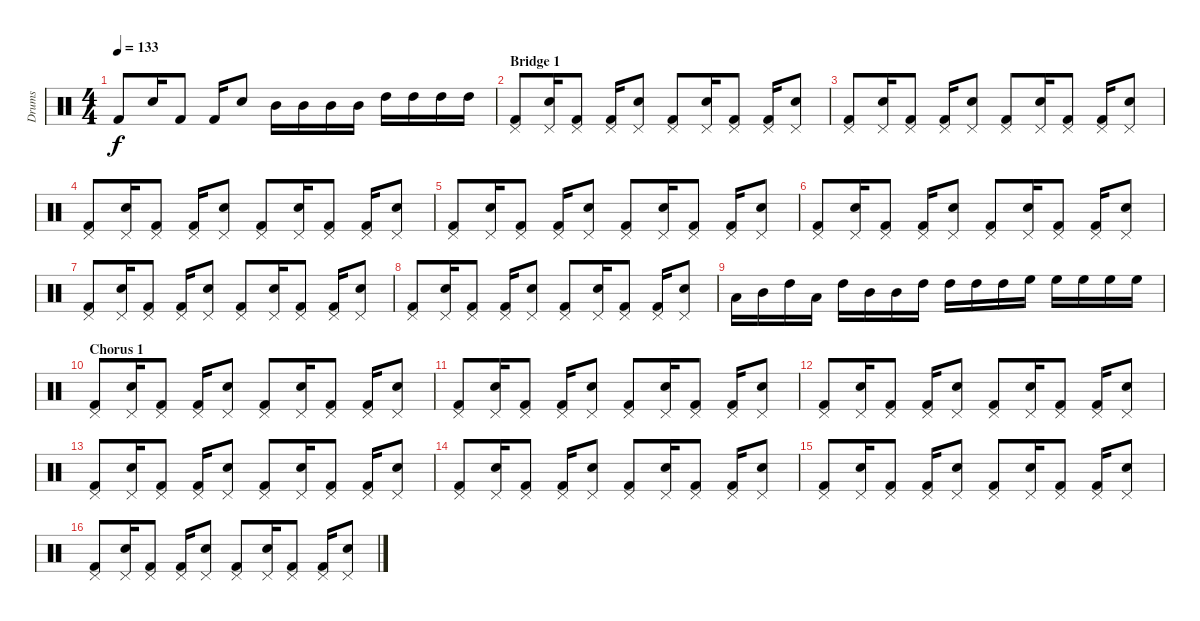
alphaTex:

\track ("Drums" "Drums") {instrument percussion}
\staff {score}
\articulation defaults
\ts (4 4)
\tempo 133
\clef neutral
\ks c "Kick (hit) 2".8{dy f} "Electric Snare (hit)".16 "Kick (hit) 2".8 "Kick (hit) 2".16 "Electric Snare (hit)".8 "Mid Tom (hit)".16 "Mid Tom (hit)".16 "Mid Tom (hit)".16 "Mid Tom (hit)".16 "High Tom (hit)".16 "High Tom (hit)".16 "High Tom (hit)".16 "High Tom (hit)".16
|
\section ("" "Bridge 1")
("Pedal Hi-Hat (hit)" "Kick (hit) 2").8 ("Pedal Hi-Hat (hit)" "Electric Snare (hit)").16 ("Pedal Hi-Hat (hit)" "Kick (hit) 2").8 ("Pedal Hi-Hat (hit)" "Kick (hit) 2").16 ("Pedal Hi-Hat (hit)" "Electric Snare (hit)").8 ("Pedal Hi-Hat (hit)" "Kick (hit) 2").8 ("Pedal Hi-Hat (hit)" "Electric Snare (hit)").16 ("Pedal Hi-Hat (hit)" "Kick (hit) 2").8 ("Pedal Hi-Hat (hit)" "Kick (hit) 2").16 ("Pedal Hi-Hat (hit)" "Electric Snare (hit)").8 |
("Pedal Hi-Hat (hit)" "Kick (hit) 2").8 ("Pedal Hi-Hat (hit)" "Electric Snare (hit)").16 ("Pedal Hi-Hat (hit)" "Kick (hit) 2").8 ("Pedal Hi-Hat (hit)" "Kick (hit) 2").16 ("Pedal Hi-Hat (hit)" "Electric Snare (hit)").8 ("Pedal Hi-Hat (hit)" "Kick (hit) 2").8 ("Pedal Hi-Hat (hit)" "Electric Snare (hit)").16 ("Pedal Hi-Hat (hit)" "Kick (hit) 2").8 ("Pedal Hi-Hat (hit)" "Kick (hit) 2").16 ("Pedal Hi-Hat (hit)" "Electric Snare (hit)").8 |
("Pedal Hi-Hat (hit)" "Kick (hit) 2").8 ("Pedal Hi-Hat (hit)" "Electric Snare (hit)").16 ("Pedal Hi-Hat (hit)" "Kick (hit) 2").8 ("Pedal Hi-Hat (hit)" "Kick (hit) 2").16 ("Pedal Hi-Hat (hit)" "Electric Snare (hit)").8 ("Pedal Hi-Hat (hit)" "Kick (hit) 2").8 ("Pedal Hi-Hat (hit)" "Electric Snare (hit)").16 ("Pedal Hi-Hat (hit)" "Kick (hit) 2").8 ("Pedal Hi-Hat (hit)" "Kick (hit) 2").16 ("Pedal Hi-Hat (hit)" "Electric Snare (hit)").8 |
("Pedal Hi-Hat (hit)" "Kick (hit) 2").8 ("Pedal Hi-Hat (hit)" "Electric Snare (hit)").16 ("Pedal Hi-Hat (hit)" "Kick (hit) 2").8 ("Pedal Hi-Hat (hit)" "Kick (hit) 2").16 ("Pedal Hi-Hat (hit)" "Electric Snare (hit)").8 ("Pedal Hi-Hat (hit)" "Kick (hit) 2").8 ("Pedal Hi-Hat (hit)" "Electric Snare (hit)").16 ("Pedal Hi-Hat (hit)" "Kick (hit) 2").8 ("Pedal Hi-Hat (hit)" "Kick (hit) 2").16 ("Pedal Hi-Hat (hit)" "Electric Snare (hit)").8 |
("Pedal Hi-Hat (hit)" "Kick (hit) 2").8 ("Pedal Hi-Hat (hit)" "Electric Snare (hit)").16 ("Pedal Hi-Hat (hit)" "Kick (hit) 2").8 ("Pedal Hi-Hat (hit)" "Kick (hit) 2").16 ("Pedal Hi-Hat (hit)" "Electric Snare (hit)").8 ("Pedal Hi-Hat (hit)" "Kick (hit) 2").8 ("Pedal Hi-Hat (hit)" "Electric Snare (hit)").16 ("Pedal Hi-Hat (hit)" "Kick (hit) 2").8 ("Pedal Hi-Hat (hit)" "Kick (hit) 2").16 ("Pedal Hi-Hat (hit)" "Electric Snare (hit)").8 |
("Pedal Hi-Hat (hit)" "Kick (hit) 2").8 ("Pedal Hi-Hat (hit)" "Electric Snare (hit)").16 ("Pedal Hi-Hat (hit)" "Kick (hit) 2").8 ("Pedal Hi-Hat (hit)" "Kick (hit) 2").16 ("Pedal Hi-Hat (hit)" "Electric Snare (hit)").8 ("Pedal Hi-Hat (hit)" "Kick (hit) 2").8 ("Pedal Hi-Hat (hit)" "Electric Snare (hit)").16 ("Pedal Hi-Hat (hit)" "Kick (hit) 2").8 ("Pedal Hi-Hat (hit)" "Kick (hit) 2").16 ("Pedal Hi-Hat (hit)" "Electric Snare (hit)").8 |
("Pedal Hi-Hat (hit)" "Kick (hit) 2").8 ("Pedal Hi-Hat (hit)" "Electric Snare (hit)").16 ("Pedal Hi-Hat (hit)" "Kick (hit) 2").8 ("Pedal Hi-Hat (hit)" "Kick (hit) 2").16 ("Pedal Hi-Hat (hit)" "Electric Snare (hit)").8 ("Pedal Hi-Hat (hit)" "Kick (hit) 2").8 ("Pedal Hi-Hat (hit)" "Electric Snare (hit)").16 ("Pedal Hi-Hat (hit)" "Kick (hit) 2").8 ("Pedal Hi-Hat (hit)" "Kick (hit) 2").16 ("Pedal Hi-Hat (hit)" "Electric Snare (hit)").8 |
"Low Tom (hit)".16 "Mid Tom (hit)".16 "High Tom (hit)".16 "Low Tom (hit)".16 "High Tom (hit)".16 "Mid Tom (hit)".16 "Mid Tom (hit)".16 "High Tom (hit)".16 "High Tom (hit)".16 "High Tom (hit)".16 "High Tom (hit)".16 "High Floor Tom (hit)".16 "High Floor Tom (hit)".16 "High Floor Tom (hit)".16 "High Floor Tom (hit)".16 "High Floor Tom (hit)".16 |
\section ("" "Chorus 1")
("Pedal Hi-Hat (hit)" "Kick (hit) 2").8 ("Pedal Hi-Hat (hit)" "Electric Snare (hit)").16 ("Pedal Hi-Hat (hit)" "Kick (hit) 2").8 ("Pedal Hi-Hat (hit)" "Kick (hit) 2").16 ("Pedal Hi-Hat (hit)" "Electric Snare (hit)").8 ("Pedal Hi-Hat (hit)" "Kick (hit) 2").8 ("Pedal Hi-Hat (hit)" "Electric Snare (hit)").16 ("Pedal Hi-Hat (hit)" "Kick (hit) 2").8 ("Pedal Hi-Hat (hit)" "Kick (hit) 2").16 ("Pedal Hi-Hat (hit)" "Electric Snare (hit)").8 |
("Pedal Hi-Hat (hit)" "Kick (hit) 2").8 ("Pedal Hi-Hat (hit)" "Electric Snare (hit)").16 ("Pedal Hi-Hat (hit)" "Kick (hit) 2").8 ("Pedal Hi-Hat (hit)" "Kick (hit) 2").16 ("Pedal Hi-Hat (hit)" "Electric Snare (hit)").8 ("Pedal Hi-Hat (hit)" "Kick (hit) 2").8 ("Pedal Hi-Hat (hit)" "Electric Snare (hit)").16 ("Pedal Hi-Hat (hit)" "Kick (hit) 2").8 ("Pedal Hi-Hat (hit)" "Kick (hit) 2").16 ("Pedal Hi-Hat (hit)" "Electric Snare (hit)").8 |
("Pedal Hi-Hat (hit)" "Kick (hit) 2").8 ("Pedal Hi-Hat (hit)" "Electric Snare (hit)").16 ("Pedal Hi-Hat (hit)" "Kick (hit) 2").8 ("Pedal Hi-Hat (hit)" "Kick (hit) 2").16 ("Pedal Hi-Hat (hit)" "Electric Snare (hit)").8 ("Pedal Hi-Hat (hit)" "Kick (hit) 2").8 ("Pedal Hi-Hat (hit)" "Electric Snare (hit)").16 ("Pedal Hi-Hat (hit)" "Kick (hit) 2").8 ("Pedal Hi-Hat (hit)" "Kick (hit) 2").16 ("Pedal Hi-Hat (hit)" "Electric Snare (hit)").8 |
("Pedal Hi-Hat (hit)" "Kick (hit) 2").8 ("Pedal Hi-Hat (hit)" "Electric Snare (hit)").16 ("Pedal Hi-Hat (hit)" "Kick (hit) 2").8 ("Pedal Hi-Hat (hit)" "Kick (hit) 2").16 ("Pedal Hi-Hat (hit)" "Electric Snare (hit)").8 ("Pedal Hi-Hat (hit)" "Kick (hit) 2").8 ("Pedal Hi-Hat (hit)" "Electric Snare (hit)").16 ("Pedal Hi-Hat (hit)" "Kick (hit) 2").8 ("Pedal Hi-Hat (hit)" "Kick (hit) 2").16 ("Pedal Hi-Hat (hit)" "Electric Snare (hit)").8 |
("Pedal Hi-Hat (hit)" "Kick (hit) 2").8 ("Pedal Hi-Hat (hit)" "Electric Snare (hit)").16 ("Pedal Hi-Hat (hit)" "Kick (hit) 2").8 ("Pedal Hi-Hat (hit)" "Kick (hit) 2").16 ("Pedal Hi-Hat (hit)" "Electric Snare (hit)").8 ("Pedal Hi-Hat (hit)" "Kick (hit) 2").8 ("Pedal Hi-Hat (hit)" "Electric Snare (hit)").16 ("Pedal Hi-Hat (hit)" "Kick (hit) 2").8 ("Pedal Hi-Hat (hit)" "Kick (hit) 2").16 ("Pedal Hi-Hat (hit)" "Electric Snare (hit)").8 |
("Pedal Hi-Hat (hit)" "Kick (hit) 2").8 ("Pedal Hi-Hat (hit)" "Electric Snare (hit)").16 ("Pedal Hi-Hat (hit)" "Kick (hit) 2").8 ("Pedal Hi-Hat (hit)" "Kick (hit) 2").16 ("Pedal Hi-Hat (hit)" "Electric Snare (hit)").8 ("Pedal Hi-Hat (hit)" "Kick (hit) 2").8 ("Pedal Hi-Hat (hit)" "Electric Snare (hit)").16 ("Pedal Hi-Hat (hit)" "Kick (hit) 2").8 ("Pedal Hi-Hat (hit)" "Kick (hit) 2").16 ("Pedal Hi-Hat (hit)" "Electric Snare (hit)").8 |
("Pedal Hi-Hat (hit)" "Kick (hit) 2").8 ("Pedal Hi-Hat (hit)" "Electric Snare (hit)").16 ("Pedal Hi-Hat (hit)" "Kick (hit) 2").8 ("Pedal Hi-Hat (hit)" "Kick (hit) 2").16 ("Pedal Hi-Hat (hit)" "Electric Snare (hit)").8 ("Pedal Hi-Hat (hit)" "Kick (hit) 2").8 ("Pedal Hi-Hat (hit)" "Electric Snare (hit)").16 ("Pedal Hi-Hat (hit)" "Kick (hit) 2").8 ("Pedal Hi-Hat (hit)" "Kick (hit) 2").16 ("Pedal Hi-Hat (hit)" "Electric Snare (hit)").8
